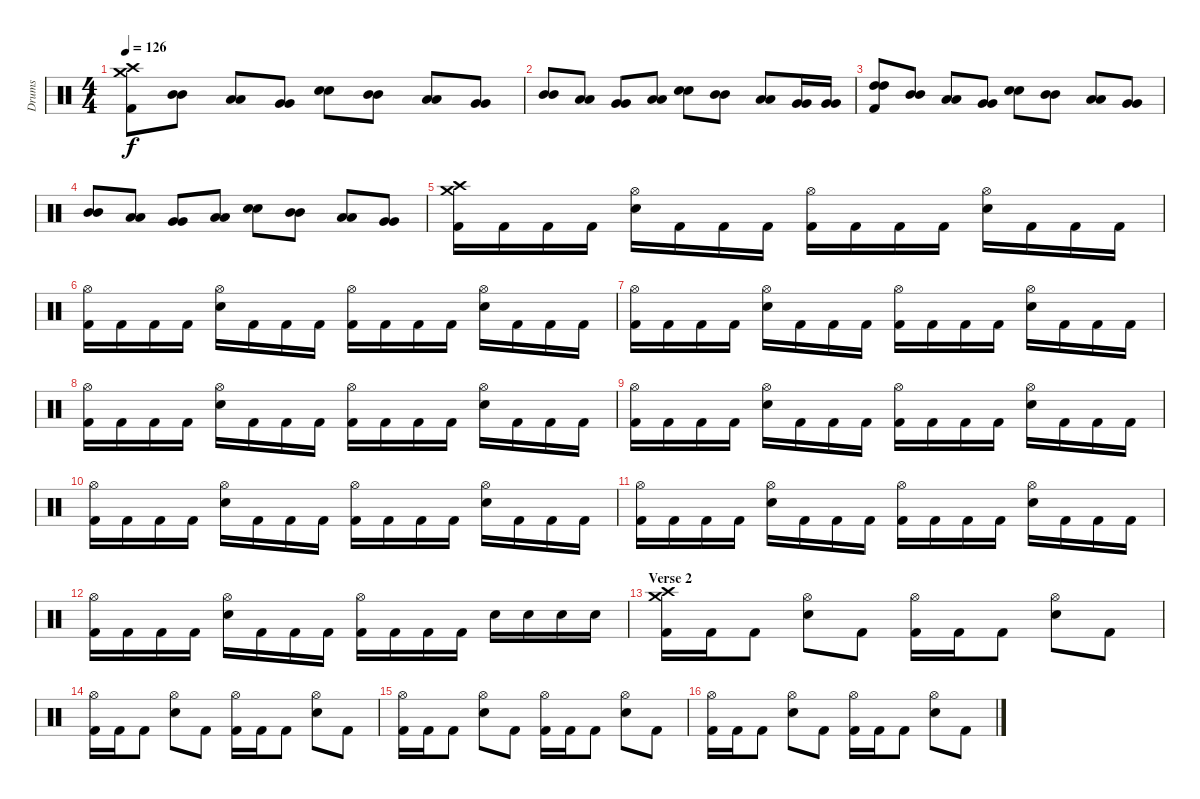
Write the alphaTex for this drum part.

\track ("Drums" "Drums") {instrument percussion}
\staff {score}
\articulation defaults
\ts (4 4)
\tempo 126
\clef neutral
\ks c
("Crash high (hit)" "Crash medium (hit)" "Kick (hit) 2").8{dy f} ("Mid Tom (hit)" "Mid Tom (hit)").8 ("Low Tom (hit)" "Low Tom (hit)").8 ("Very Low Tom (hit)" "Very Low Tom (hit)").8 ("Electric Snare (hit)" "Electric Snare (hit)").8 ("Mid Tom (hit)" "Mid Tom (hit)").8 ("Low Tom (hit)" "Low Tom (hit)").8 ("Very Low Tom (hit)" "Very Low Tom (hit)").8 |
("Mid Tom (hit)" "Mid Tom (hit)").8 ("Low Tom (hit)" "Low Tom (hit)").8 ("Very Low Tom (hit)" "Very Low Tom (hit)").8 ("Low Floor Tom (hit)" "Low Floor Tom (hit)").8 ("Electric Snare (hit)" "Electric Snare (hit)").8 ("Mid Tom (hit)" "Mid Tom (hit)").8 ("Low Tom (hit)" "Low Tom (hit)").8 ("Very Low Tom (hit)" "Very Low Tom (hit)").16 ("Very Low Tom (hit)" "Very Low Tom (hit)").16 |
("High Tom (hit)" "High Tom (hit)" "Kick (hit) 2").8 ("Mid Tom (hit)" "Mid Tom (hit)").8 ("Low Tom (hit)" "Low Tom (hit)").8 ("Very Low Tom (hit)" "Very Low Tom (hit)").8 ("Electric Snare (hit)" "Electric Snare (hit)").8 ("Mid Tom (hit)" "Mid Tom (hit)").8 ("Low Tom (hit)" "Low Tom (hit)").8 ("Very Low Tom (hit)" "Very Low Tom (hit)").8 |
("Mid Tom (hit)" "Mid Tom (hit)").8 ("Low Tom (hit)" "Low Tom (hit)").8 ("Very Low Tom (hit)" "Very Low Tom (hit)").8 ("Low Floor Tom (hit)" "Low Floor Tom (hit)").8 ("Electric Snare (hit)" "Electric Snare (hit)").8 ("Mid Tom (hit)" "Mid Tom (hit)").8 ("Low Tom (hit)" "Low Tom (hit)").8 ("Very Low Tom (hit)" "Very Low Tom (hit)").8 |
("Crash high (hit)" "Crash medium (hit)" "Kick (hit) 2").16 "Kick (hit) 2".16 "Kick (hit) 2".16 "Kick (hit) 2".16 ("Hi-Hat (open)" "Electric Snare (hit)").16 "Kick (hit) 2".16 "Kick (hit) 2".16 "Kick (hit) 2".16 ("Hi-Hat (open)" "Kick (hit) 2").16 "Kick (hit) 2".16 "Kick (hit) 2".16 "Kick (hit) 2".16 ("Hi-Hat (open)" "Electric Snare (hit)").16 "Kick (hit) 2".16 "Kick (hit) 2".16 "Kick (hit) 2".16 |
("Hi-Hat (open)" "Kick (hit) 2").16 "Kick (hit) 2".16 "Kick (hit) 2".16 "Kick (hit) 2".16 ("Hi-Hat (open)" "Electric Snare (hit)").16 "Kick (hit) 2".16 "Kick (hit) 2".16 "Kick (hit) 2".16 ("Hi-Hat (open)" "Kick (hit) 2").16 "Kick (hit) 2".16 "Kick (hit) 2".16 "Kick (hit) 2".16 ("Hi-Hat (open)" "Electric Snare (hit)").16 "Kick (hit) 2".16 "Kick (hit) 2".16 "Kick (hit) 2".16 |
("Hi-Hat (open)" "Kick (hit) 2").16 "Kick (hit) 2".16 "Kick (hit) 2".16 "Kick (hit) 2".16 ("Hi-Hat (open)" "Electric Snare (hit)").16 "Kick (hit) 2".16 "Kick (hit) 2".16 "Kick (hit) 2".16 ("Hi-Hat (open)" "Kick (hit) 2").16 "Kick (hit) 2".16 "Kick (hit) 2".16 "Kick (hit) 2".16 ("Hi-Hat (open)" "Electric Snare (hit)").16 "Kick (hit) 2".16 "Kick (hit) 2".16 "Kick (hit) 2".16 |
("Hi-Hat (open)" "Kick (hit) 2").16 "Kick (hit) 2".16 "Kick (hit) 2".16 "Kick (hit) 2".16 ("Hi-Hat (open)" "Electric Snare (hit)").16 "Kick (hit) 2".16 "Kick (hit) 2".16 "Kick (hit) 2".16 ("Hi-Hat (open)" "Kick (hit) 2").16 "Kick (hit) 2".16 "Kick (hit) 2".16 "Kick (hit) 2".16 ("Hi-Hat (open)" "Electric Snare (hit)").16 "Kick (hit) 2".16 "Kick (hit) 2".16 "Kick (hit) 2".16 |
("Hi-Hat (open)" "Kick (hit) 2").16 "Kick (hit) 2".16 "Kick (hit) 2".16 "Kick (hit) 2".16 ("Hi-Hat (open)" "Electric Snare (hit)").16 "Kick (hit) 2".16 "Kick (hit) 2".16 "Kick (hit) 2".16 ("Hi-Hat (open)" "Kick (hit) 2").16 "Kick (hit) 2".16 "Kick (hit) 2".16 "Kick (hit) 2".16 ("Hi-Hat (open)" "Electric Snare (hit)").16 "Kick (hit) 2".16 "Kick (hit) 2".16 "Kick (hit) 2".16 |
("Hi-Hat (open)" "Kick (hit) 2").16 "Kick (hit) 2".16 "Kick (hit) 2".16 "Kick (hit) 2".16 ("Hi-Hat (open)" "Electric Snare (hit)").16 "Kick (hit) 2".16 "Kick (hit) 2".16 "Kick (hit) 2".16 ("Hi-Hat (open)" "Kick (hit) 2").16 "Kick (hit) 2".16 "Kick (hit) 2".16 "Kick (hit) 2".16 ("Hi-Hat (open)" "Electric Snare (hit)").16 "Kick (hit) 2".16 "Kick (hit) 2".16 "Kick (hit) 2".16 |
("Hi-Hat (open)" "Kick (hit) 2").16 "Kick (hit) 2".16 "Kick (hit) 2".16 "Kick (hit) 2".16 ("Hi-Hat (open)" "Electric Snare (hit)").16 "Kick (hit) 2".16 "Kick (hit) 2".16 "Kick (hit) 2".16 ("Hi-Hat (open)" "Kick (hit) 2").16 "Kick (hit) 2".16 "Kick (hit) 2".16 "Kick (hit) 2".16 ("Hi-Hat (open)" "Electric Snare (hit)").16 "Kick (hit) 2".16 "Kick (hit) 2".16 "Kick (hit) 2".16 |
("Hi-Hat (open)" "Kick (hit) 2").16 "Kick (hit) 2".16 "Kick (hit) 2".16 "Kick (hit) 2".16 ("Hi-Hat (open)" "Electric Snare (hit)").16 "Kick (hit) 2".16 "Kick (hit) 2".16 "Kick (hit) 2".16 ("Hi-Hat (open)" "Kick (hit) 2").16 "Kick (hit) 2".16 "Kick (hit) 2".16 "Kick (hit) 2".16 "Electric Snare (hit)".16 "Electric Snare (hit)".16 "Electric Snare (hit)".16 "Electric Snare (hit)".16 |
\section ("" "Verse 2")
("Crash high (hit)" "Crash medium (hit)" "Kick (hit) 2").16 "Kick (hit) 2".16 "Kick (hit) 2".8 ("Hi-Hat (open)" "Electric Snare (hit)").8 "Kick (hit) 2".8 ("Hi-Hat (open)" "Kick (hit) 2").16 "Kick (hit) 2".16 "Kick (hit) 2".8 ("Hi-Hat (open)" "Electric Snare (hit)").8 "Kick (hit) 2".8 |
("Hi-Hat (open)" "Kick (hit) 2").16 "Kick (hit) 2".16 "Kick (hit) 2".8 ("Hi-Hat (open)" "Electric Snare (hit)").8 "Kick (hit) 2".8 ("Hi-Hat (open)" "Kick (hit) 2").16 "Kick (hit) 2".16 "Kick (hit) 2".8 ("Hi-Hat (open)" "Electric Snare (hit)").8 "Kick (hit) 2".8 |
("Hi-Hat (open)" "Kick (hit) 2").16 "Kick (hit) 2".16 "Kick (hit) 2".8 ("Hi-Hat (open)" "Electric Snare (hit)").8 "Kick (hit) 2".8 ("Hi-Hat (open)" "Kick (hit) 2").16 "Kick (hit) 2".16 "Kick (hit) 2".8 ("Hi-Hat (open)" "Electric Snare (hit)").8 "Kick (hit) 2".8 |
("Hi-Hat (open)" "Kick (hit) 2").16 "Kick (hit) 2".16 "Kick (hit) 2".8 ("Hi-Hat (open)" "Electric Snare (hit)").8 "Kick (hit) 2".8 ("Hi-Hat (open)" "Kick (hit) 2").16 "Kick (hit) 2".16 "Kick (hit) 2".8 ("Hi-Hat (open)" "Electric Snare (hit)").8 "Kick (hit) 2".8
